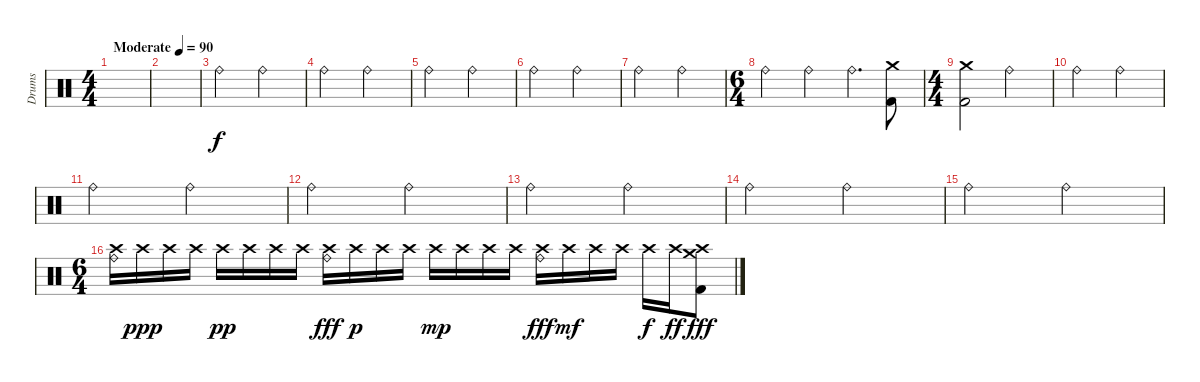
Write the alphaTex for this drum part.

\track ("Drums" "Drums") {instrument percussion}
\staff {score}
\articulation defaults
\ts (4 4)
\tempo (90 "Moderate")
\clef neutral
\ks c
|
|
"Ride (bell)".2 "Ride (bell)".2 |
"Ride (bell)".2 "Ride (bell)".2 |
"Ride (bell)".2 "Ride (bell)".2 |
"Ride (bell)".2 "Ride (bell)".2 |
"Ride (bell)".2 "Ride (bell)".2 |
\ts (6 4)
"Ride (bell)".2 "Ride (bell)".2 "Ride (bell)".4{d} ("Crash medium (hit)" "Kick (hit) 2").8 |
\ts (4 4)
("Crash medium (hit)" "Kick (hit) 2").2 "Ride (bell)".2 |
"Ride (bell)".2 "Ride (bell)".2 |
"Ride (bell)".2 "Ride (bell)".2 |
"Ride (bell)".2 "Ride (bell)".2 |
"Ride (bell)".2 "Ride (bell)".2 |
"Ride (bell)".2 "Ride (bell)".2 |
"Ride (bell)".2 "Ride (bell)".2 |
\ts (6 4)
("Crash high (hit)" "Ride (bell)").16 "Crash high (hit)".16{dy ppp} "Crash high (hit)".16 "Crash high (hit)".16 "Crash high (hit)".16{dy pp} "Crash high (hit)".16 "Crash high (hit)".16 "Crash high (hit)".16 ("Crash high (hit)" "Ride (bell)").16{dy fff} "Crash high (hit)".16{dy p} "Crash high (hit)".16 "Crash high (hit)".16 "Crash high (hit)".16{dy mp} "Crash high (hit)".16 "Crash high (hit)".16 "Crash high (hit)".16 ("Crash high (hit)" "Ride (bell)").16{dy fff} "Crash high (hit)".16{dy mf} "Crash high (hit)".16 "Crash high (hit)".16 "Crash high (hit)".16{dy f} "Crash high (hit)".16{dy ff} ("Crash high (hit)" "Crash medium (hit)" "Kick (hit) 2").8{dy fff}
